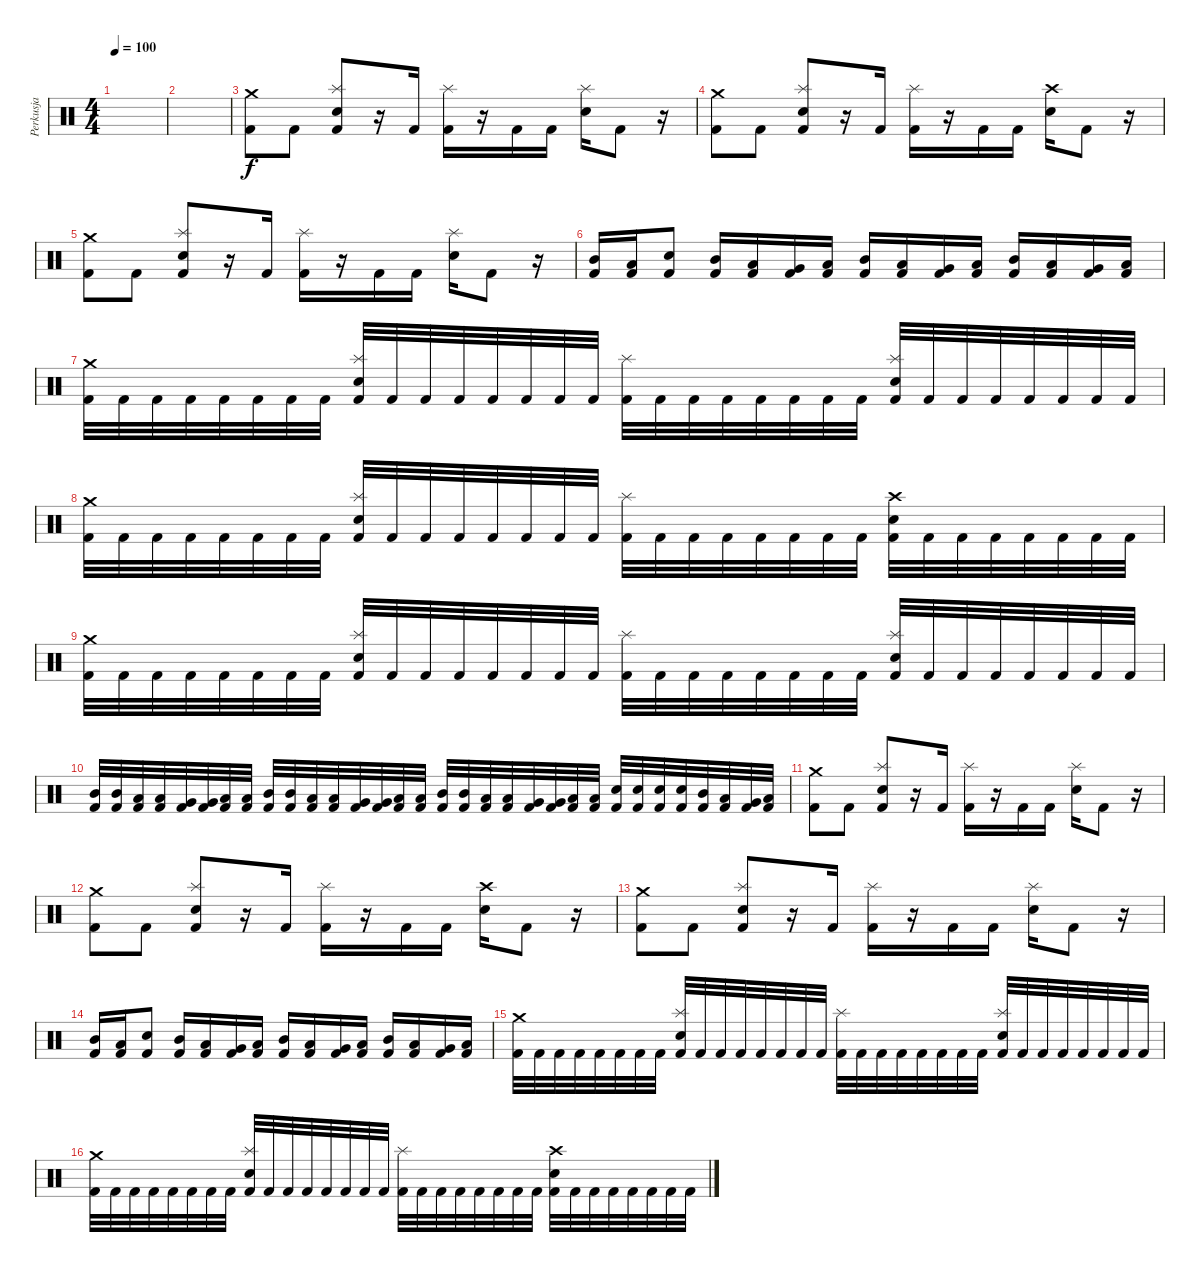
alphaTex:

\track ("Perkusja" "Perkusja") {instrument percussion}
\staff {score}
\articulation defaults
\ts (4 4)
\tempo 100
\clef neutral
\ks c
|
|
("Crash medium (hit)" "Kick (hit) 2").8 "Kick (hit) 2".8 ("Splash (hit)" "Electric Snare (hit)" "Kick (hit) 2").8 r.16 "Kick (hit) 2".16 ("Splash (hit)" "Kick (hit) 2").16 r.16 "Kick (hit) 2".16 "Kick (hit) 2".16 ("Splash (hit)" "Electric Snare (hit)").16 "Kick (hit) 2".8 r.16 |
("Crash medium (hit)" "Kick (hit) 2").8 "Kick (hit) 2".8 ("Splash (hit)" "Electric Snare (hit)" "Kick (hit) 2").8 r.16 "Kick (hit) 2".16 ("Splash (hit)" "Kick (hit) 2").16 r.16 "Kick (hit) 2".16 "Kick (hit) 2".16 ("Crash high (hit)" "Electric Snare (hit)").16 "Kick (hit) 2".8 r.16 |
("Crash medium (hit)" "Kick (hit) 2").8 "Kick (hit) 2".8 ("Splash (hit)" "Electric Snare (hit)" "Kick (hit) 2").8 r.16 "Kick (hit) 2".16 ("Splash (hit)" "Kick (hit) 2").16 r.16 "Kick (hit) 2".16 "Kick (hit) 2".16 ("Splash (hit)" "Electric Snare (hit)").16 "Kick (hit) 2".8 r.16 |
("Mid Tom (hit)" "Kick (hit) 2").16 ("Low Tom (hit)" "Kick (hit) 2").16 ("Electric Snare (hit)" "Kick (hit) 2").8 ("Mid Tom (hit)" "Kick (hit) 2").16 ("Low Tom (hit)" "Kick (hit) 2").16 ("Very Low Tom (hit)" "Kick (hit) 2").16 ("Low Floor Tom (hit)" "Kick (hit) 2").16 ("Mid Tom (hit)" "Kick (hit) 2").16 ("Low Tom (hit)" "Kick (hit) 2").16 ("Very Low Tom (hit)" "Kick (hit) 2").16 ("Low Floor Tom (hit)" "Kick (hit) 2").16 ("Mid Tom (hit)" "Kick (hit) 2").16 ("Low Tom (hit)" "Kick (hit) 2").16 ("Very Low Tom (hit)" "Kick (hit) 2").16 ("Low Floor Tom (hit)" "Kick (hit) 2").16 |
("Crash medium (hit)" "Kick (hit) 2").32 "Kick (hit) 2".32 "Kick (hit) 2".32 "Kick (hit) 2".32 "Kick (hit) 2".32 "Kick (hit) 2".32 "Kick (hit) 2".32 "Kick (hit) 2".32 ("Splash (hit)" "Electric Snare (hit)" "Kick (hit) 2").32 "Kick (hit) 2".32 "Kick (hit) 2".32 "Kick (hit) 2".32 "Kick (hit) 2".32 "Kick (hit) 2".32 "Kick (hit) 2".32 "Kick (hit) 2".32 ("Splash (hit)" "Kick (hit) 2").32 "Kick (hit) 2".32 "Kick (hit) 2".32 "Kick (hit) 2".32 "Kick (hit) 2".32 "Kick (hit) 2".32 "Kick (hit) 2".32 "Kick (hit) 2".32 ("Splash (hit)" "Electric Snare (hit)" "Kick (hit) 2").32 "Kick (hit) 2".32 "Kick (hit) 2".32 "Kick (hit) 2".32 "Kick (hit) 2".32 "Kick (hit) 2".32 "Kick (hit) 2".32 "Kick (hit) 2".32 |
("Crash medium (hit)" "Kick (hit) 2").32 "Kick (hit) 2".32 "Kick (hit) 2".32 "Kick (hit) 2".32 "Kick (hit) 2".32 "Kick (hit) 2".32 "Kick (hit) 2".32 "Kick (hit) 2".32 ("Splash (hit)" "Electric Snare (hit)" "Kick (hit) 2").32 "Kick (hit) 2".32 "Kick (hit) 2".32 "Kick (hit) 2".32 "Kick (hit) 2".32 "Kick (hit) 2".32 "Kick (hit) 2".32 "Kick (hit) 2".32 ("Splash (hit)" "Kick (hit) 2").32 "Kick (hit) 2".32 "Kick (hit) 2".32 "Kick (hit) 2".32 "Kick (hit) 2".32 "Kick (hit) 2".32 "Kick (hit) 2".32 "Kick (hit) 2".32 ("Crash high (hit)" "Electric Snare (hit)" "Kick (hit) 2").32 "Kick (hit) 2".32 "Kick (hit) 2".32 "Kick (hit) 2".32 "Kick (hit) 2".32 "Kick (hit) 2".32 "Kick (hit) 2".32 "Kick (hit) 2".32 |
("Crash medium (hit)" "Kick (hit) 2").32 "Kick (hit) 2".32 "Kick (hit) 2".32 "Kick (hit) 2".32 "Kick (hit) 2".32 "Kick (hit) 2".32 "Kick (hit) 2".32 "Kick (hit) 2".32 ("Splash (hit)" "Electric Snare (hit)" "Kick (hit) 2").32 "Kick (hit) 2".32 "Kick (hit) 2".32 "Kick (hit) 2".32 "Kick (hit) 2".32 "Kick (hit) 2".32 "Kick (hit) 2".32 "Kick (hit) 2".32 ("Splash (hit)" "Kick (hit) 2").32 "Kick (hit) 2".32 "Kick (hit) 2".32 "Kick (hit) 2".32 "Kick (hit) 2".32 "Kick (hit) 2".32 "Kick (hit) 2".32 "Kick (hit) 2".32 ("Splash (hit)" "Electric Snare (hit)" "Kick (hit) 2").32 "Kick (hit) 2".32 "Kick (hit) 2".32 "Kick (hit) 2".32 "Kick (hit) 2".32 "Kick (hit) 2".32 "Kick (hit) 2".32 "Kick (hit) 2".32 |
("Mid Tom (hit)" "Kick (hit) 2").32 ("Mid Tom (hit)" "Kick (hit) 2").32 ("Low Tom (hit)" "Kick (hit) 2").32 ("Low Tom (hit)" "Kick (hit) 2").32 ("Very Low Tom (hit)" "Kick (hit) 2").32 ("Very Low Tom (hit)" "Kick (hit) 2").32 ("Low Floor Tom (hit)" "Kick (hit) 2").32 ("Low Floor Tom (hit)" "Kick (hit) 2").32 ("Mid Tom (hit)" "Kick (hit) 2").32 ("Mid Tom (hit)" "Kick (hit) 2").32 ("Low Tom (hit)" "Kick (hit) 2").32 ("Low Tom (hit)" "Kick (hit) 2").32 ("Very Low Tom (hit)" "Kick (hit) 2").32 ("Very Low Tom (hit)" "Kick (hit) 2").32 ("Low Floor Tom (hit)" "Kick (hit) 2").32 ("Low Floor Tom (hit)" "Kick (hit) 2").32 ("Mid Tom (hit)" "Kick (hit) 2").32 ("Mid Tom (hit)" "Kick (hit) 2").32 ("Low Tom (hit)" "Kick (hit) 2").32 ("Low Tom (hit)" "Kick (hit) 2").32 ("Very Low Tom (hit)" "Kick (hit) 2").32 ("Very Low Tom (hit)" "Kick (hit) 2").32 ("Low Floor Tom (hit)" "Kick (hit) 2").32 ("Low Floor Tom (hit)" "Kick (hit) 2").32 ("Electric Snare (hit)" "Kick (hit) 2").32 ("Electric Snare (hit)" "Kick (hit) 2").32 ("Electric Snare (hit)" "Kick (hit) 2").32 ("Electric Snare (hit)" "Kick (hit) 2").32 ("Mid Tom (hit)" "Kick (hit) 2").32 ("Low Tom (hit)" "Kick (hit) 2").32 ("Very Low Tom (hit)" "Kick (hit) 2").32 ("Low Floor Tom (hit)" "Kick (hit) 2").32 |
("Crash medium (hit)" "Kick (hit) 2").8 "Kick (hit) 2".8 ("Splash (hit)" "Electric Snare (hit)" "Kick (hit) 2").8 r.16 "Kick (hit) 2".16 ("Splash (hit)" "Kick (hit) 2").16 r.16 "Kick (hit) 2".16 "Kick (hit) 2".16 ("Splash (hit)" "Electric Snare (hit)").16 "Kick (hit) 2".8 r.16 |
("Crash medium (hit)" "Kick (hit) 2").8 "Kick (hit) 2".8 ("Splash (hit)" "Electric Snare (hit)" "Kick (hit) 2").8 r.16 "Kick (hit) 2".16 ("Splash (hit)" "Kick (hit) 2").16 r.16 "Kick (hit) 2".16 "Kick (hit) 2".16 ("Crash high (hit)" "Electric Snare (hit)").16 "Kick (hit) 2".8 r.16 |
("Crash medium (hit)" "Kick (hit) 2").8 "Kick (hit) 2".8 ("Splash (hit)" "Electric Snare (hit)" "Kick (hit) 2").8 r.16 "Kick (hit) 2".16 ("Splash (hit)" "Kick (hit) 2").16 r.16 "Kick (hit) 2".16 "Kick (hit) 2".16 ("Splash (hit)" "Electric Snare (hit)").16 "Kick (hit) 2".8 r.16 |
("Mid Tom (hit)" "Kick (hit) 2").16 ("Low Tom (hit)" "Kick (hit) 2").16 ("Electric Snare (hit)" "Kick (hit) 2").8 ("Mid Tom (hit)" "Kick (hit) 2").16 ("Low Tom (hit)" "Kick (hit) 2").16 ("Very Low Tom (hit)" "Kick (hit) 2").16 ("Low Floor Tom (hit)" "Kick (hit) 2").16 ("Mid Tom (hit)" "Kick (hit) 2").16 ("Low Tom (hit)" "Kick (hit) 2").16 ("Very Low Tom (hit)" "Kick (hit) 2").16 ("Low Floor Tom (hit)" "Kick (hit) 2").16 ("Mid Tom (hit)" "Kick (hit) 2").16 ("Low Tom (hit)" "Kick (hit) 2").16 ("Very Low Tom (hit)" "Kick (hit) 2").16 ("Low Floor Tom (hit)" "Kick (hit) 2").16 |
("Crash medium (hit)" "Kick (hit) 2").32 "Kick (hit) 2".32 "Kick (hit) 2".32 "Kick (hit) 2".32 "Kick (hit) 2".32 "Kick (hit) 2".32 "Kick (hit) 2".32 "Kick (hit) 2".32 ("Splash (hit)" "Electric Snare (hit)" "Kick (hit) 2").32 "Kick (hit) 2".32 "Kick (hit) 2".32 "Kick (hit) 2".32 "Kick (hit) 2".32 "Kick (hit) 2".32 "Kick (hit) 2".32 "Kick (hit) 2".32 ("Splash (hit)" "Kick (hit) 2").32 "Kick (hit) 2".32 "Kick (hit) 2".32 "Kick (hit) 2".32 "Kick (hit) 2".32 "Kick (hit) 2".32 "Kick (hit) 2".32 "Kick (hit) 2".32 ("Splash (hit)" "Electric Snare (hit)" "Kick (hit) 2").32 "Kick (hit) 2".32 "Kick (hit) 2".32 "Kick (hit) 2".32 "Kick (hit) 2".32 "Kick (hit) 2".32 "Kick (hit) 2".32 "Kick (hit) 2".32 |
("Crash medium (hit)" "Kick (hit) 2").32 "Kick (hit) 2".32 "Kick (hit) 2".32 "Kick (hit) 2".32 "Kick (hit) 2".32 "Kick (hit) 2".32 "Kick (hit) 2".32 "Kick (hit) 2".32 ("Splash (hit)" "Electric Snare (hit)" "Kick (hit) 2").32 "Kick (hit) 2".32 "Kick (hit) 2".32 "Kick (hit) 2".32 "Kick (hit) 2".32 "Kick (hit) 2".32 "Kick (hit) 2".32 "Kick (hit) 2".32 ("Splash (hit)" "Kick (hit) 2").32 "Kick (hit) 2".32 "Kick (hit) 2".32 "Kick (hit) 2".32 "Kick (hit) 2".32 "Kick (hit) 2".32 "Kick (hit) 2".32 "Kick (hit) 2".32 ("Crash high (hit)" "Electric Snare (hit)" "Kick (hit) 2").32 "Kick (hit) 2".32 "Kick (hit) 2".32 "Kick (hit) 2".32 "Kick (hit) 2".32 "Kick (hit) 2".32 "Kick (hit) 2".32 "Kick (hit) 2".32
